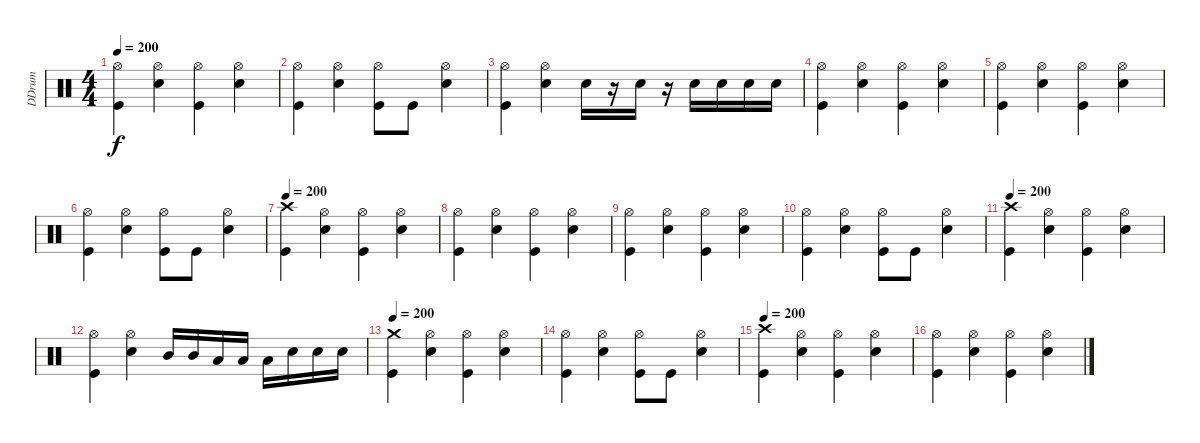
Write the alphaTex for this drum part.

\track ("DDrum" "DDrum") {instrument percussion}
\staff {score}
\articulation defaults
\ts (4 4)
\tempo 200
\clef neutral
\ks c
("Hi-Hat (open)" "Kick (hit)").4{dy f} ("Hi-Hat (open)" "Electric Snare (hit)").4 ("Hi-Hat (open)" "Kick (hit)").4 ("Hi-Hat (open)" "Electric Snare (hit)").4 |
("Hi-Hat (open)" "Kick (hit)").4 ("Hi-Hat (open)" "Electric Snare (hit)").4 ("Hi-Hat (open)" "Kick (hit)").8 "Kick (hit)".8 ("Hi-Hat (open)" "Electric Snare (hit)").4 |
("Hi-Hat (open)" "Kick (hit)").4 ("Hi-Hat (open)" "Electric Snare (hit)").4 "Electric Snare (hit)".16 r.16 "Electric Snare (hit)".16 r.16 "Electric Snare (hit)".16 "Electric Snare (hit)".16 "Electric Snare (hit)".16 "Electric Snare (hit)".16 |
("Hi-Hat (open)" "Kick (hit)").4 ("Hi-Hat (open)" "Electric Snare (hit)").4 ("Hi-Hat (open)" "Kick (hit)").4 ("Hi-Hat (open)" "Electric Snare (hit)").4 |
("Hi-Hat (open)" "Kick (hit)").4 ("Hi-Hat (open)" "Electric Snare (hit)").4 ("Hi-Hat (open)" "Kick (hit)").4 ("Hi-Hat (open)" "Electric Snare (hit)").4 |
("Hi-Hat (open)" "Kick (hit)").4 ("Hi-Hat (open)" "Electric Snare (hit)").4 ("Hi-Hat (open)" "Kick (hit)").8 "Kick (hit)".8 ("Hi-Hat (open)" "Electric Snare (hit)").4 |
\tempo 200
("Crash high (hit)" "Kick (hit)").4 ("Hi-Hat (open)" "Electric Snare (hit)").4 ("Hi-Hat (open)" "Kick (hit)").4 ("Hi-Hat (open)" "Electric Snare (hit)").4 |
("Hi-Hat (open)" "Kick (hit)").4 ("Hi-Hat (open)" "Electric Snare (hit)").4 ("Hi-Hat (open)" "Kick (hit)").4 ("Hi-Hat (open)" "Electric Snare (hit)").4 |
("Hi-Hat (open)" "Kick (hit)").4 ("Hi-Hat (open)" "Electric Snare (hit)").4 ("Hi-Hat (open)" "Kick (hit)").4 ("Hi-Hat (open)" "Electric Snare (hit)").4 |
("Hi-Hat (open)" "Kick (hit)").4 ("Hi-Hat (open)" "Electric Snare (hit)").4 ("Hi-Hat (open)" "Kick (hit)").8 "Kick (hit)".8 ("Hi-Hat (open)" "Electric Snare (hit)").4 |
\tempo 200
("Crash high (hit)" "Kick (hit)").4 ("Hi-Hat (open)" "Electric Snare (hit)").4 ("Hi-Hat (open)" "Kick (hit)").4 ("Hi-Hat (open)" "Electric Snare (hit)").4 |
("Hi-Hat (open)" "Kick (hit)").4 ("Hi-Hat (open)" "Electric Snare (hit)").4 "Mid Tom (hit)".16 "Mid Tom (hit)".16 "Low Tom (hit)".16 "Low Tom (hit)".16 "Low Tom (hit)".16 "Electric Snare (hit)".16 "Electric Snare (hit)".16 "Electric Snare (hit)".16 |
\tempo 200
("Crash medium (hit)" "Kick (hit)").4 ("Hi-Hat (open)" "Electric Snare (hit)").4 ("Hi-Hat (open)" "Kick (hit)").4 ("Hi-Hat (open)" "Electric Snare (hit)").4 |
("Hi-Hat (open)" "Kick (hit)").4 ("Hi-Hat (open)" "Electric Snare (hit)").4 ("Hi-Hat (open)" "Kick (hit)").8 "Kick (hit)".8 ("Hi-Hat (open)" "Electric Snare (hit)").4 |
\tempo 200
("Crash high (hit)" "Kick (hit)").4 ("Hi-Hat (open)" "Electric Snare (hit)").4 ("Hi-Hat (open)" "Kick (hit)").4 ("Hi-Hat (open)" "Electric Snare (hit)").4 |
("Hi-Hat (open)" "Kick (hit)").4 ("Hi-Hat (open)" "Electric Snare (hit)").4 ("Hi-Hat (open)" "Kick (hit)").4 ("Hi-Hat (open)" "Electric Snare (hit)").4
